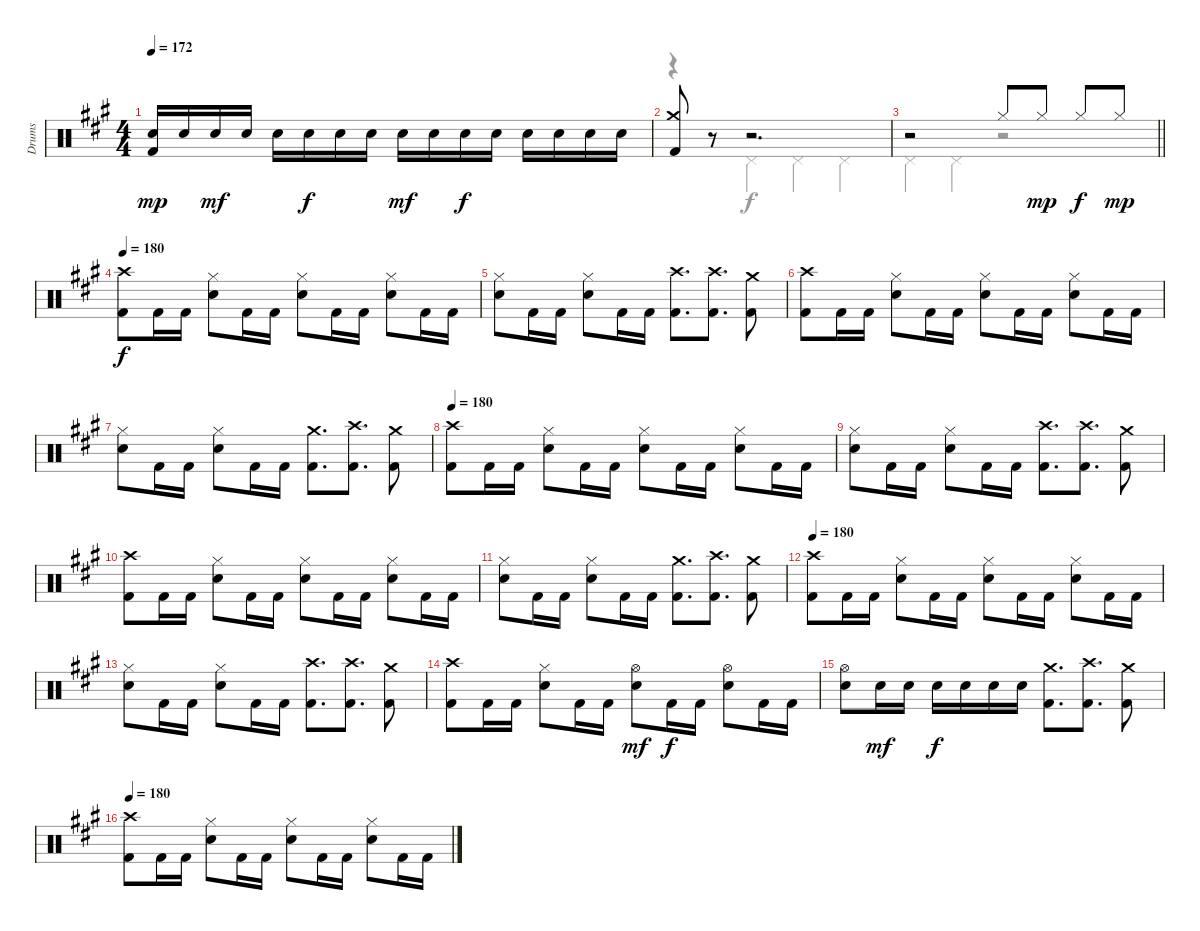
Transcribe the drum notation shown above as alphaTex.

\track ("Drums" "Drums") {instrument percussion}
\staff {score}
\articulation defaults
\voice
\ts (4 4)
\tempo 172
\clef neutral
\ks a
("Snare (hit) 2" "Kick (hit) 2").16{dy mp} "Snare (hit) 2".16 "Snare (hit) 2".16{dy mf} "Snare (hit) 2".16 "Snare (hit) 2".16 "Snare (hit) 2".16{dy f} "Snare (hit) 2".16 "Snare (hit) 2".16 "Snare (hit) 2".16{dy mf} "Snare (hit) 2".16 "Snare (hit) 2".16{dy f} "Snare (hit) 2".16 "Snare (hit) 2".16 "Snare (hit) 2".16 "Snare (hit) 2".16 "Snare (hit) 2".16 |
("Crash medium (hit)" "Kick (hit) 2").8 r.8 r.2{d} |
\barLineRight lightlight
r.2 "Hi-Hat (closed)".8 "Hi-Hat (closed)".8{dy mp} "Hi-Hat (closed)".8{dy f} "Hi-Hat (closed)".8{dy mp} |
\tempo 180
("Crash high (hit)" "Kick (hit) 2").8{dy f} "Kick (hit) 2".16 "Kick (hit) 2".16 ("Hi-Hat (closed)" "Snare (hit) 2").8 "Kick (hit) 2".16 "Kick (hit) 2".16 ("Hi-Hat (closed)" "Snare (hit) 2").8 "Kick (hit) 2".16 "Kick (hit) 2".16 ("Hi-Hat (closed)" "Snare (hit) 2").8 "Kick (hit) 2".16 "Kick (hit) 2".16 |
("Hi-Hat (closed)" "Snare (hit) 2").8 "Kick (hit) 2".16 "Kick (hit) 2".16 ("Hi-Hat (closed)" "Snare (hit) 2").8 "Kick (hit) 2".16 "Kick (hit) 2".16 ("Crash high (hit)" "Kick (hit) 2").8{d} ("Crash high (hit)" "Kick (hit) 2").8{d} ("Crash medium (hit)" "Kick (hit) 2").8 |
("Crash high (hit)" "Kick (hit) 2").8 "Kick (hit) 2".16 "Kick (hit) 2".16 ("Hi-Hat (closed)" "Snare (hit) 2").8 "Kick (hit) 2".16 "Kick (hit) 2".16 ("Hi-Hat (closed)" "Snare (hit) 2").8 "Kick (hit) 2".16 "Kick (hit) 2".16 ("Hi-Hat (closed)" "Snare (hit) 2").8 "Kick (hit) 2".16 "Kick (hit) 2".16 |
("Hi-Hat (closed)" "Snare (hit) 2").8 "Kick (hit) 2".16 "Kick (hit) 2".16 ("Hi-Hat (closed)" "Snare (hit) 2").8 "Kick (hit) 2".16 "Kick (hit) 2".16 ("Crash medium (hit)" "Kick (hit) 2").8{d} ("Crash high (hit)" "Kick (hit) 2").8{d} ("Crash medium (hit)" "Kick (hit) 2").8 |
\tempo 180
("Crash high (hit)" "Kick (hit) 2").8 "Kick (hit) 2".16 "Kick (hit) 2".16 ("Hi-Hat (closed)" "Snare (hit) 2").8 "Kick (hit) 2".16 "Kick (hit) 2".16 ("Hi-Hat (closed)" "Snare (hit) 2").8 "Kick (hit) 2".16 "Kick (hit) 2".16 ("Hi-Hat (closed)" "Snare (hit) 2").8 "Kick (hit) 2".16 "Kick (hit) 2".16 |
("Hi-Hat (closed)" "Snare (hit) 2").8 "Kick (hit) 2".16 "Kick (hit) 2".16 ("Hi-Hat (closed)" "Snare (hit) 2").8 "Kick (hit) 2".16 "Kick (hit) 2".16 ("Crash high (hit)" "Kick (hit) 2").8{d} ("Crash high (hit)" "Kick (hit) 2").8{d} ("Crash medium (hit)" "Kick (hit) 2").8 |
("Crash high (hit)" "Kick (hit) 2").8 "Kick (hit) 2".16 "Kick (hit) 2".16 ("Hi-Hat (closed)" "Snare (hit) 2").8 "Kick (hit) 2".16 "Kick (hit) 2".16 ("Hi-Hat (closed)" "Snare (hit) 2").8 "Kick (hit) 2".16 "Kick (hit) 2".16 ("Hi-Hat (closed)" "Snare (hit) 2").8 "Kick (hit) 2".16 "Kick (hit) 2".16 |
("Hi-Hat (closed)" "Snare (hit) 2").8 "Kick (hit) 2".16 "Kick (hit) 2".16 ("Hi-Hat (closed)" "Snare (hit) 2").8 "Kick (hit) 2".16 "Kick (hit) 2".16 ("Crash medium (hit)" "Kick (hit) 2").8{d} ("Crash high (hit)" "Kick (hit) 2").8{d} ("Crash medium (hit)" "Kick (hit) 2").8 |
\tempo 180
("Crash high (hit)" "Kick (hit) 2").8 "Kick (hit) 2".16 "Kick (hit) 2".16 ("Hi-Hat (closed)" "Snare (hit) 2").8 "Kick (hit) 2".16 "Kick (hit) 2".16 ("Hi-Hat (closed)" "Snare (hit) 2").8 "Kick (hit) 2".16 "Kick (hit) 2".16 ("Hi-Hat (closed)" "Snare (hit) 2").8 "Kick (hit) 2".16 "Kick (hit) 2".16 |
("Hi-Hat (closed)" "Snare (hit) 2").8 "Kick (hit) 2".16 "Kick (hit) 2".16 ("Hi-Hat (closed)" "Snare (hit) 2").8 "Kick (hit) 2".16 "Kick (hit) 2".16 ("Crash high (hit)" "Kick (hit) 2").8{d} ("Crash high (hit)" "Kick (hit) 2").8{d} ("Crash medium (hit)" "Kick (hit) 2").8 |
("Crash high (hit)" "Kick (hit) 2").8 "Kick (hit) 2".16 "Kick (hit) 2".16 ("Hi-Hat (closed)" "Snare (hit) 2").8 "Kick (hit) 2".16 "Kick (hit) 2".16 ("Hi-Hat (open)" "Snare (hit) 2").8{dy mf} "Kick (hit) 2".16{dy f} "Kick (hit) 2".16 ("Hi-Hat (open)" "Snare (hit) 2").8 "Kick (hit) 2".16 "Kick (hit) 2".16 |
("Hi-Hat (open)" "Snare (hit) 2").8 "Snare (hit) 2".16{dy mf} "Snare (hit) 2".16 "Snare (hit) 2".16{dy f} "Snare (hit) 2".16 "Snare (hit) 2".16 "Snare (hit) 2".16 ("Crash medium (hit)" "Kick (hit) 2").8{d} ("Crash high (hit)" "Kick (hit) 2").8{d} ("Crash medium (hit)" "Kick (hit) 2").8 |
\tempo 180
("Crash high (hit)" "Kick (hit) 2").8 "Kick (hit) 2".16 "Kick (hit) 2".16 ("Hi-Hat (closed)" "Snare (hit) 2").8 "Kick (hit) 2".16 "Kick (hit) 2".16 ("Hi-Hat (closed)" "Snare (hit) 2").8 "Kick (hit) 2".16 "Kick (hit) 2".16 ("Hi-Hat (closed)" "Snare (hit) 2").8 "Kick (hit) 2".16 "Kick (hit) 2".16
\voice
\clef neutral
\ottava regular
\simile none
\ks a
|
r.4 "Pedal Hi-Hat (hit)".4 "Pedal Hi-Hat (hit)".4 "Pedal Hi-Hat (hit)".4 |
\barLineRight lightlight "Pedal Hi-Hat (hit)".4 "Pedal Hi-Hat (hit)".4
r.2 |
|
|
|
|
|
|
|
|
|
|
|
|
